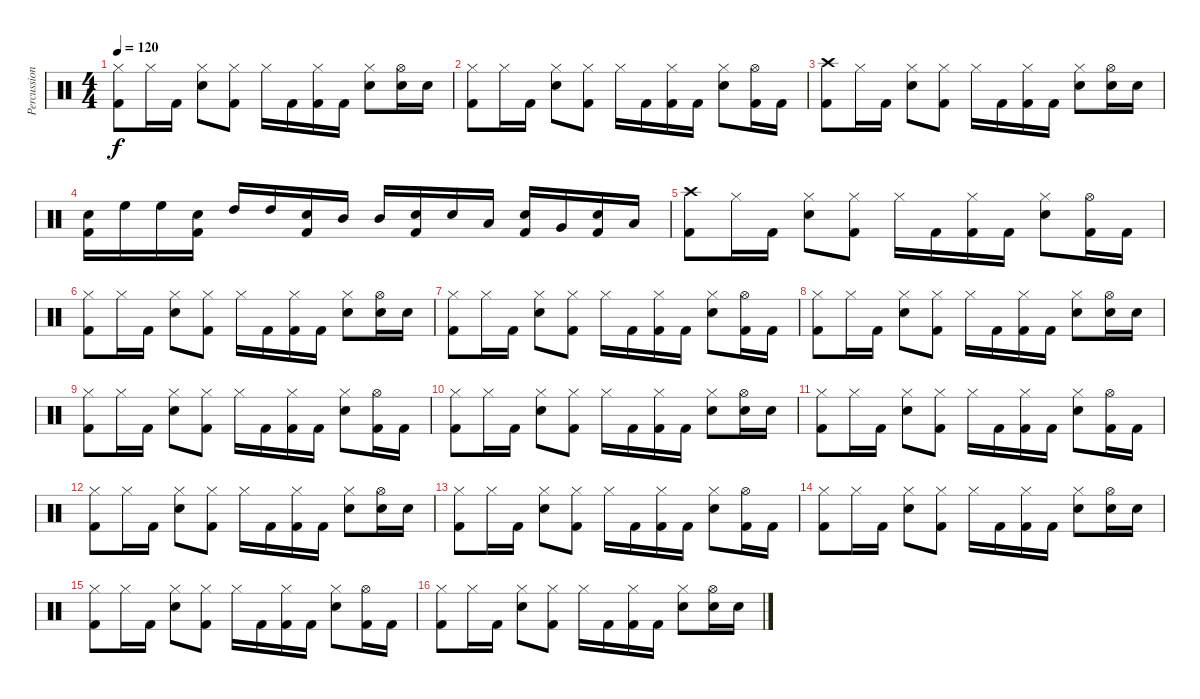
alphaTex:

\track ("Percussion" "Percussion") {instrument percussion}
\staff {score}
\articulation defaults
\ts (4 4)
\tempo 120
\clef neutral
\ks c
("Hi-Hat (closed)" "Kick (hit) 2").8{dy f} "Hi-Hat (closed)".16 "Kick (hit) 2".16 ("Hi-Hat (closed)" "Snare (hit) 2").8 ("Hi-Hat (closed)" "Kick (hit) 2").8 "Hi-Hat (closed)".16 "Kick (hit) 2".16 ("Hi-Hat (closed)" "Kick (hit) 2").16 "Kick (hit) 2".16 ("Hi-Hat (closed)" "Snare (hit) 2").8 ("Hi-Hat (open)" "Snare (hit) 2").16 "Snare (hit) 2".16 |
("Hi-Hat (closed)" "Kick (hit) 2").8 "Hi-Hat (closed)".16 "Kick (hit) 2".16 ("Hi-Hat (closed)" "Snare (hit) 2").8 ("Hi-Hat (closed)" "Kick (hit) 2").8 "Hi-Hat (closed)".16 "Kick (hit) 2".16 ("Hi-Hat (closed)" "Kick (hit) 2").16 "Kick (hit) 2".16 ("Hi-Hat (closed)" "Snare (hit) 2").8 ("Hi-Hat (open)" "Kick (hit) 2").16 "Kick (hit) 2".16 |
("Crash high (hit)" "Kick (hit) 2").8 "Hi-Hat (closed)".16 "Kick (hit) 2".16 ("Hi-Hat (closed)" "Snare (hit) 2").8 ("Hi-Hat (closed)" "Kick (hit) 2").8 "Hi-Hat (closed)".16 "Kick (hit) 2".16 ("Hi-Hat (closed)" "Kick (hit) 2").16 "Kick (hit) 2".16 ("Hi-Hat (closed)" "Snare (hit) 2").8 ("Hi-Hat (open)" "Snare (hit) 2").16 "Snare (hit) 2".16 |
("Electric Snare (hit)" "Kick (hit) 2").16 "High Floor Tom (hit)".16 "High Floor Tom (hit)".16 ("Electric Snare (hit)" "Kick (hit) 2").16 "High Tom (hit)".16 "High Tom (hit)".16 ("Electric Snare (hit)" "Kick (hit) 2").16 "Mid Tom (hit)".16 "Mid Tom (hit)".16 ("Electric Snare (hit)" "Kick (hit) 2").16 "Electric Snare (hit)".16 "Low Tom (hit)".16 ("Electric Snare (hit)" "Kick (hit) 2").16 "Very Low Tom (hit)".16 ("Electric Snare (hit)" "Kick (hit) 2").16 "Low Floor Tom (hit)".16 |
("Crash high (hit)" "Kick (hit) 2").8 "Hi-Hat (closed)".16 "Kick (hit) 2".16 ("Hi-Hat (closed)" "Snare (hit) 2").8 ("Hi-Hat (closed)" "Kick (hit) 2").8 "Hi-Hat (closed)".16 "Kick (hit) 2".16 ("Hi-Hat (closed)" "Kick (hit) 2").16 "Kick (hit) 2".16 ("Hi-Hat (closed)" "Snare (hit) 2").8 ("Hi-Hat (open)" "Kick (hit) 2").16 "Kick (hit) 2".16 |
("Hi-Hat (closed)" "Kick (hit) 2").8 "Hi-Hat (closed)".16 "Kick (hit) 2".16 ("Hi-Hat (closed)" "Snare (hit) 2").8 ("Hi-Hat (closed)" "Kick (hit) 2").8 "Hi-Hat (closed)".16 "Kick (hit) 2".16 ("Hi-Hat (closed)" "Kick (hit) 2").16 "Kick (hit) 2".16 ("Hi-Hat (closed)" "Snare (hit) 2").8 ("Hi-Hat (open)" "Snare (hit) 2").16 "Snare (hit) 2".16 |
("Hi-Hat (closed)" "Kick (hit) 2").8 "Hi-Hat (closed)".16 "Kick (hit) 2".16 ("Hi-Hat (closed)" "Snare (hit) 2").8 ("Hi-Hat (closed)" "Kick (hit) 2").8 "Hi-Hat (closed)".16 "Kick (hit) 2".16 ("Hi-Hat (closed)" "Kick (hit) 2").16 "Kick (hit) 2".16 ("Hi-Hat (closed)" "Snare (hit) 2").8 ("Hi-Hat (open)" "Kick (hit) 2").16 "Kick (hit) 2".16 |
("Hi-Hat (closed)" "Kick (hit) 2").8 "Hi-Hat (closed)".16 "Kick (hit) 2".16 ("Hi-Hat (closed)" "Snare (hit) 2").8 ("Hi-Hat (closed)" "Kick (hit) 2").8 "Hi-Hat (closed)".16 "Kick (hit) 2".16 ("Hi-Hat (closed)" "Kick (hit) 2").16 "Kick (hit) 2".16 ("Hi-Hat (closed)" "Snare (hit) 2").8 ("Hi-Hat (open)" "Snare (hit) 2").16 "Snare (hit) 2".16 |
("Hi-Hat (closed)" "Kick (hit) 2").8 "Hi-Hat (closed)".16 "Kick (hit) 2".16 ("Hi-Hat (closed)" "Snare (hit) 2").8 ("Hi-Hat (closed)" "Kick (hit) 2").8 "Hi-Hat (closed)".16 "Kick (hit) 2".16 ("Hi-Hat (closed)" "Kick (hit) 2").16 "Kick (hit) 2".16 ("Hi-Hat (closed)" "Snare (hit) 2").8 ("Hi-Hat (open)" "Kick (hit) 2").16 "Kick (hit) 2".16 |
("Hi-Hat (closed)" "Kick (hit) 2").8 "Hi-Hat (closed)".16 "Kick (hit) 2".16 ("Hi-Hat (closed)" "Snare (hit) 2").8 ("Hi-Hat (closed)" "Kick (hit) 2").8 "Hi-Hat (closed)".16 "Kick (hit) 2".16 ("Hi-Hat (closed)" "Kick (hit) 2").16 "Kick (hit) 2".16 ("Hi-Hat (closed)" "Snare (hit) 2").8 ("Hi-Hat (open)" "Snare (hit) 2").16 "Snare (hit) 2".16 |
("Hi-Hat (closed)" "Kick (hit) 2").8 "Hi-Hat (closed)".16 "Kick (hit) 2".16 ("Hi-Hat (closed)" "Snare (hit) 2").8 ("Hi-Hat (closed)" "Kick (hit) 2").8 "Hi-Hat (closed)".16 "Kick (hit) 2".16 ("Hi-Hat (closed)" "Kick (hit) 2").16 "Kick (hit) 2".16 ("Hi-Hat (closed)" "Snare (hit) 2").8 ("Hi-Hat (open)" "Kick (hit) 2").16 "Kick (hit) 2".16 |
("Hi-Hat (closed)" "Kick (hit) 2").8 "Hi-Hat (closed)".16 "Kick (hit) 2".16 ("Hi-Hat (closed)" "Snare (hit) 2").8 ("Hi-Hat (closed)" "Kick (hit) 2").8 "Hi-Hat (closed)".16 "Kick (hit) 2".16 ("Hi-Hat (closed)" "Kick (hit) 2").16 "Kick (hit) 2".16 ("Hi-Hat (closed)" "Snare (hit) 2").8 ("Hi-Hat (open)" "Snare (hit) 2").16 "Snare (hit) 2".16 |
("Hi-Hat (closed)" "Kick (hit) 2").8 "Hi-Hat (closed)".16 "Kick (hit) 2".16 ("Hi-Hat (closed)" "Snare (hit) 2").8 ("Hi-Hat (closed)" "Kick (hit) 2").8 "Hi-Hat (closed)".16 "Kick (hit) 2".16 ("Hi-Hat (closed)" "Kick (hit) 2").16 "Kick (hit) 2".16 ("Hi-Hat (closed)" "Snare (hit) 2").8 ("Hi-Hat (open)" "Kick (hit) 2").16 "Kick (hit) 2".16 |
("Hi-Hat (closed)" "Kick (hit) 2").8 "Hi-Hat (closed)".16 "Kick (hit) 2".16 ("Hi-Hat (closed)" "Snare (hit) 2").8 ("Hi-Hat (closed)" "Kick (hit) 2").8 "Hi-Hat (closed)".16 "Kick (hit) 2".16 ("Hi-Hat (closed)" "Kick (hit) 2").16 "Kick (hit) 2".16 ("Hi-Hat (closed)" "Snare (hit) 2").8 ("Hi-Hat (open)" "Snare (hit) 2").16 "Snare (hit) 2".16 |
("Hi-Hat (closed)" "Kick (hit) 2").8 "Hi-Hat (closed)".16 "Kick (hit) 2".16 ("Hi-Hat (closed)" "Snare (hit) 2").8 ("Hi-Hat (closed)" "Kick (hit) 2").8 "Hi-Hat (closed)".16 "Kick (hit) 2".16 ("Hi-Hat (closed)" "Kick (hit) 2").16 "Kick (hit) 2".16 ("Hi-Hat (closed)" "Snare (hit) 2").8 ("Hi-Hat (open)" "Kick (hit) 2").16 "Kick (hit) 2".16 |
("Hi-Hat (closed)" "Kick (hit) 2").8 "Hi-Hat (closed)".16 "Kick (hit) 2".16 ("Hi-Hat (closed)" "Snare (hit) 2").8 ("Hi-Hat (closed)" "Kick (hit) 2").8 "Hi-Hat (closed)".16 "Kick (hit) 2".16 ("Hi-Hat (closed)" "Kick (hit) 2").16 "Kick (hit) 2".16 ("Hi-Hat (closed)" "Snare (hit) 2").8 ("Hi-Hat (open)" "Snare (hit) 2").16 "Snare (hit) 2".16
